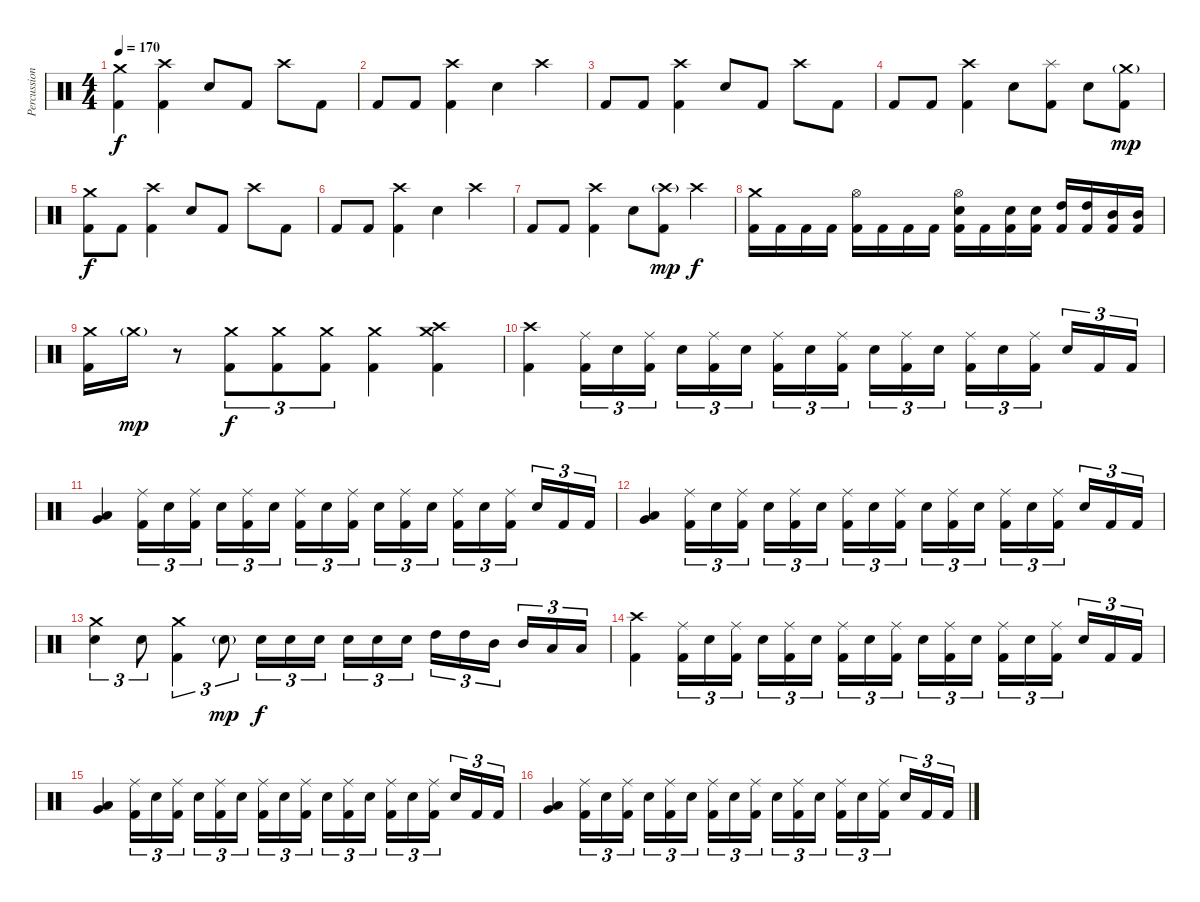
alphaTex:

\track ("Percussion" "Percussion") {instrument percussion}
\staff {score}
\articulation defaults
\ts (4 4)
\tempo 170
\clef neutral
\ks c
("Crash medium (hit)" "Kick (hit) 2").4{dy f} ("Crash high (hit)" "Kick (hit) 2").4 "Electric Snare (hit)".8 "Kick (hit) 2".8 "Crash high (hit)".8 "Kick (hit) 2".8 |
"Kick (hit) 2".8 "Kick (hit) 2".8 ("Crash high (hit)" "Kick (hit) 2").4 "Electric Snare (hit)".4 "Crash high (hit)".4 |
"Kick (hit) 2".8 "Kick (hit) 2".8 ("Crash high (hit)" "Kick (hit) 2").4 "Electric Snare (hit)".8 "Kick (hit) 2".8 "Crash high (hit)".8 "Kick (hit) 2".8 |
"Kick (hit) 2".8 "Kick (hit) 2".8 ("Crash high (hit)" "Kick (hit) 2").4 "Electric Snare (hit)".8 ("Splash (hit)" "Kick (hit) 2").8 "Electric Snare (hit)".8 ("Crash medium (hit)"{g} "Kick (hit) 2").8{dy mp} |
("Crash medium (hit)" "Kick (hit) 2").8{dy f} "Kick (hit) 2".8 ("Crash high (hit)" "Kick (hit) 2").4 "Electric Snare (hit)".8 "Kick (hit) 2".8 "Crash high (hit)".8 "Kick (hit) 2".8 |
"Kick (hit) 2".8 "Kick (hit) 2".8 ("Crash high (hit)" "Kick (hit) 2").4 "Electric Snare (hit)".4 "Crash high (hit)".4 |
"Kick (hit) 2".8 "Kick (hit) 2".8 ("Crash high (hit)" "Kick (hit) 2").4 "Electric Snare (hit)".8 ("Crash high (hit)"{g} "Kick (hit) 2").8{dy mp} "Crash high (hit)".4{dy f} |
("Crash medium (hit)" "Kick (hit) 2").16 "Kick (hit) 2".16 "Kick (hit) 2".16 "Kick (hit) 2".16 ("Hi-Hat (open)" "Kick (hit) 2").16 "Kick (hit) 2".16 "Kick (hit) 2".16 "Kick (hit) 2".16 ("Hi-Hat (open)" "Electric Snare (hit)" "Kick (hit) 2").16 "Kick (hit) 2".16 ("Electric Snare (hit)" "Kick (hit) 2").16 ("Electric Snare (hit)" "Kick (hit) 2").16 ("High Tom (hit)" "Kick (hit) 2").16 ("High Tom (hit)" "Kick (hit) 2").16 ("Mid Tom (hit)" "Kick (hit) 2").16 ("Mid Tom (hit)" "Kick (hit) 2").16 |
("Crash medium (hit)" "Kick (hit) 2").16 "Crash medium (hit)"{g}.16{dy mp} r.8 ("Crash medium (hit)" "Kick (hit) 2").8{tu (3 2) dy f} ("Crash medium (hit)" "Kick (hit) 2").8{tu (3 2)} ("Crash medium (hit)" "Kick (hit) 2").8{tu (3 2)} ("Crash medium (hit)" "Kick (hit) 2").4 ("Crash medium (hit)" "Crash high (hit)" "Kick (hit) 2").4 |
("Crash high (hit)" "Kick (hit) 2").4 ("Ride (middle)" "Kick (hit) 2").16{tu (3 2)} "Electric Snare (hit)".16{tu (3 2)} ("Ride (middle)" "Kick (hit) 2").16{tu (3 2) beam splitsecondary} "Electric Snare (hit)".16{tu (3 2)} ("Ride (middle)" "Kick (hit) 2").16{tu (3 2)} "Electric Snare (hit)".16{tu (3 2)} ("Ride (middle)" "Kick (hit) 2").16{tu (3 2)} "Electric Snare (hit)".16{tu (3 2)} ("Ride (middle)" "Kick (hit) 2").16{tu (3 2) beam splitsecondary} "Electric Snare (hit)".16{tu (3 2)} ("Ride (middle)" "Kick (hit) 2").16{tu (3 2)} "Electric Snare (hit)".16{tu (3 2)} ("Ride (middle)" "Kick (hit) 2").16{tu (3 2)} "Electric Snare (hit)".16{tu (3 2)} ("Ride (middle)" "Kick (hit) 2").16{tu (3 2) beam splitsecondary} "Electric Snare (hit)".16{tu (3 2)} "Kick (hit) 2".16{tu (3 2)} "Kick (hit) 2".16{tu (3 2)} |
("Very Low Tom (hit)" "Low Floor Tom (hit)").4{bd 240} ("Ride (middle)" "Kick (hit) 2").16{tu (3 2)} "Electric Snare (hit)".16{tu (3 2)} ("Ride (middle)" "Kick (hit) 2").16{tu (3 2) beam splitsecondary} "Electric Snare (hit)".16{tu (3 2)} ("Ride (middle)" "Kick (hit) 2").16{tu (3 2)} "Electric Snare (hit)".16{tu (3 2)} ("Ride (middle)" "Kick (hit) 2").16{tu (3 2)} "Electric Snare (hit)".16{tu (3 2)} ("Ride (middle)" "Kick (hit) 2").16{tu (3 2) beam splitsecondary} "Electric Snare (hit)".16{tu (3 2)} ("Ride (middle)" "Kick (hit) 2").16{tu (3 2)} "Electric Snare (hit)".16{tu (3 2)} ("Ride (middle)" "Kick (hit) 2").16{tu (3 2)} "Electric Snare (hit)".16{tu (3 2)} ("Ride (middle)" "Kick (hit) 2").16{tu (3 2) beam splitsecondary} "Electric Snare (hit)".16{tu (3 2)} "Kick (hit) 2".16{tu (3 2)} "Kick (hit) 2".16{tu (3 2)} |
("Very Low Tom (hit)" "Low Floor Tom (hit)").4{bd 240} ("Ride (middle)" "Kick (hit) 2").16{tu (3 2)} "Electric Snare (hit)".16{tu (3 2)} ("Ride (middle)" "Kick (hit) 2").16{tu (3 2) beam splitsecondary} "Electric Snare (hit)".16{tu (3 2)} ("Ride (middle)" "Kick (hit) 2").16{tu (3 2)} "Electric Snare (hit)".16{tu (3 2)} ("Ride (middle)" "Kick (hit) 2").16{tu (3 2)} "Electric Snare (hit)".16{tu (3 2)} ("Ride (middle)" "Kick (hit) 2").16{tu (3 2) beam splitsecondary} "Electric Snare (hit)".16{tu (3 2)} ("Ride (middle)" "Kick (hit) 2").16{tu (3 2)} "Electric Snare (hit)".16{tu (3 2)} ("Ride (middle)" "Kick (hit) 2").16{tu (3 2)} "Electric Snare (hit)".16{tu (3 2)} ("Ride (middle)" "Kick (hit) 2").16{tu (3 2) beam splitsecondary} "Electric Snare (hit)".16{tu (3 2)} "Kick (hit) 2".16{tu (3 2)} "Kick (hit) 2".16{tu (3 2)} |
("Crash medium (hit)" "Electric Snare (hit)").4{tu (3 2)} "Electric Snare (hit)".8{tu (3 2)} ("Crash medium (hit)" "Kick (hit) 2").4{tu (3 2)} "Electric Snare (hit)"{g}.8{tu (3 2) dy mp} "Electric Snare (hit)".16{tu (3 2) dy f} "Electric Snare (hit)".16{tu (3 2)} "Electric Snare (hit)".16{tu (3 2) beam splitsecondary} "Electric Snare (hit)".16{tu (3 2)} "Electric Snare (hit)".16{tu (3 2)} "Electric Snare (hit)".16{tu (3 2)} "High Tom (hit)".16{tu (3 2)} "High Tom (hit)".16{tu (3 2)} "Mid Tom (hit)".16{tu (3 2) beam splitsecondary} "Mid Tom (hit)".16{tu (3 2)} "Low Tom (hit)".16{tu (3 2)} "Low Tom (hit)".16{tu (3 2)} |
("Crash high (hit)" "Kick (hit) 2").4 ("Ride (middle)" "Kick (hit) 2").16{tu (3 2)} "Electric Snare (hit)".16{tu (3 2)} ("Ride (middle)" "Kick (hit) 2").16{tu (3 2) beam splitsecondary} "Electric Snare (hit)".16{tu (3 2)} ("Ride (middle)" "Kick (hit) 2").16{tu (3 2)} "Electric Snare (hit)".16{tu (3 2)} ("Ride (middle)" "Kick (hit) 2").16{tu (3 2)} "Electric Snare (hit)".16{tu (3 2)} ("Ride (middle)" "Kick (hit) 2").16{tu (3 2) beam splitsecondary} "Electric Snare (hit)".16{tu (3 2)} ("Ride (middle)" "Kick (hit) 2").16{tu (3 2)} "Electric Snare (hit)".16{tu (3 2)} ("Ride (middle)" "Kick (hit) 2").16{tu (3 2)} "Electric Snare (hit)".16{tu (3 2)} ("Ride (middle)" "Kick (hit) 2").16{tu (3 2) beam splitsecondary} "Electric Snare (hit)".16{tu (3 2)} "Kick (hit) 2".16{tu (3 2)} "Kick (hit) 2".16{tu (3 2)} |
("Very Low Tom (hit)" "Low Floor Tom (hit)").4{bd 240} ("Ride (middle)" "Kick (hit) 2").16{tu (3 2)} "Electric Snare (hit)".16{tu (3 2)} ("Ride (middle)" "Kick (hit) 2").16{tu (3 2) beam splitsecondary} "Electric Snare (hit)".16{tu (3 2)} ("Ride (middle)" "Kick (hit) 2").16{tu (3 2)} "Electric Snare (hit)".16{tu (3 2)} ("Ride (middle)" "Kick (hit) 2").16{tu (3 2)} "Electric Snare (hit)".16{tu (3 2)} ("Ride (middle)" "Kick (hit) 2").16{tu (3 2) beam splitsecondary} "Electric Snare (hit)".16{tu (3 2)} ("Ride (middle)" "Kick (hit) 2").16{tu (3 2)} "Electric Snare (hit)".16{tu (3 2)} ("Ride (middle)" "Kick (hit) 2").16{tu (3 2)} "Electric Snare (hit)".16{tu (3 2)} ("Ride (middle)" "Kick (hit) 2").16{tu (3 2) beam splitsecondary} "Electric Snare (hit)".16{tu (3 2)} "Kick (hit) 2".16{tu (3 2)} "Kick (hit) 2".16{tu (3 2)} |
("Very Low Tom (hit)" "Low Floor Tom (hit)").4{bd 240} ("Ride (middle)" "Kick (hit) 2").16{tu (3 2)} "Electric Snare (hit)".16{tu (3 2)} ("Ride (middle)" "Kick (hit) 2").16{tu (3 2) beam splitsecondary} "Electric Snare (hit)".16{tu (3 2)} ("Ride (middle)" "Kick (hit) 2").16{tu (3 2)} "Electric Snare (hit)".16{tu (3 2)} ("Ride (middle)" "Kick (hit) 2").16{tu (3 2)} "Electric Snare (hit)".16{tu (3 2)} ("Ride (middle)" "Kick (hit) 2").16{tu (3 2) beam splitsecondary} "Electric Snare (hit)".16{tu (3 2)} ("Ride (middle)" "Kick (hit) 2").16{tu (3 2)} "Electric Snare (hit)".16{tu (3 2)} ("Ride (middle)" "Kick (hit) 2").16{tu (3 2)} "Electric Snare (hit)".16{tu (3 2)} ("Ride (middle)" "Kick (hit) 2").16{tu (3 2) beam splitsecondary} "Electric Snare (hit)".16{tu (3 2)} "Kick (hit) 2".16{tu (3 2)} "Kick (hit) 2".16{tu (3 2)}
